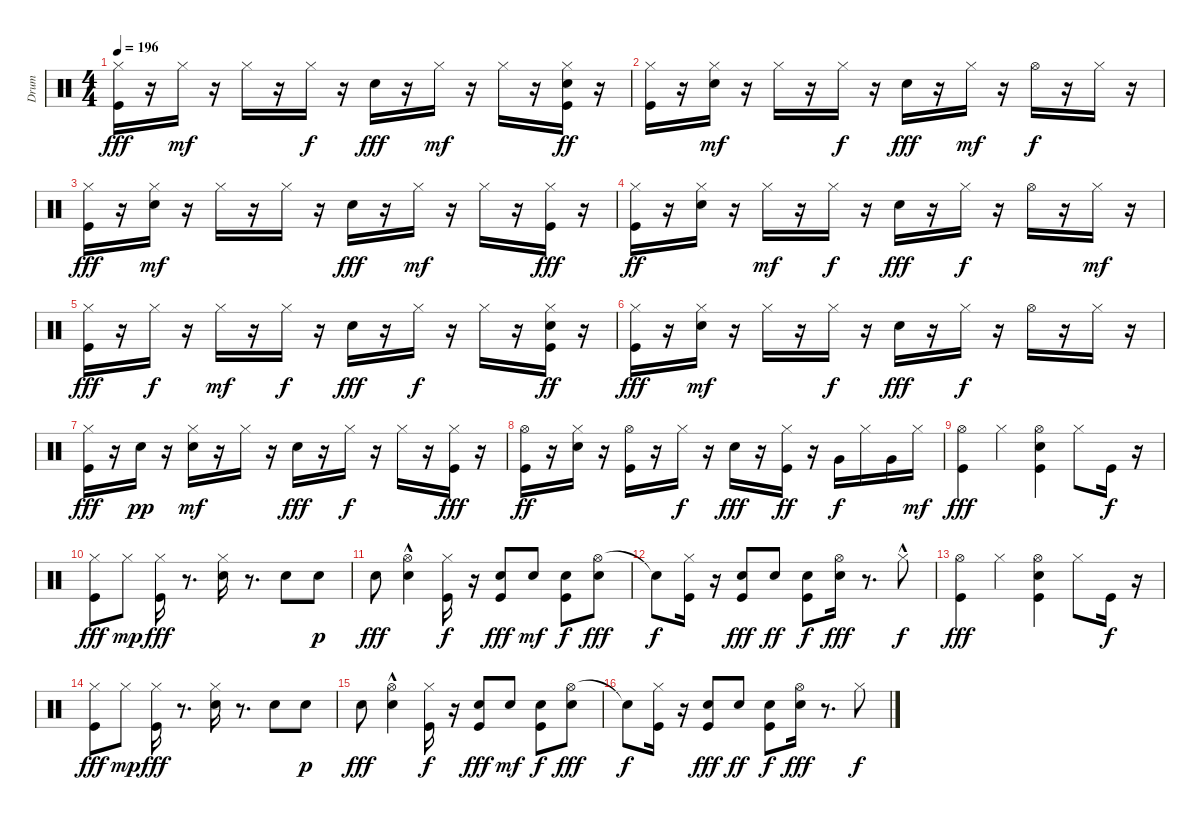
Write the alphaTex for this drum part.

\track ("Drum" "Drum") {instrument percussion}
\staff {score}
\articulation defaults
\ts (4 4)
\tempo 196
\clef neutral
\ks c
("Hi-Hat (closed)" "Kick (hit)").16{dy fff} r.16 "Hi-Hat (closed)".16{dy mf} r.16 "Hi-Hat (closed)".16 r.16 "Hi-Hat (closed)".16{dy f} r.16 "Snare (hit) 2".16{dy fff} r.16 "Hi-Hat (closed)".16{dy mf} r.16 "Hi-Hat (closed)".16 r.16 ("Snare (hit) 2" "Hi-Hat (closed)" "Kick (hit)").16{dy ff} r.16 |
("Hi-Hat (closed)" "Kick (hit)").16 r.16 ("Snare (hit) 2" "Hi-Hat (closed)").16{dy mf} r.16 "Hi-Hat (closed)".16 r.16 "Hi-Hat (closed)".16{dy f} r.16 "Snare (hit) 2".16{dy fff} r.16 "Hi-Hat (closed)".16{dy mf} r.16 "Hi-Hat (open)".16{dy f} r.16 "Hi-Hat (closed)".16 r.16 |
("Hi-Hat (closed)" "Kick (hit)").16{dy fff} r.16 ("Snare (hit) 2" "Hi-Hat (closed)").16{dy mf} r.16 "Hi-Hat (closed)".16 r.16 "Hi-Hat (closed)".16 r.16 "Snare (hit) 2".16{dy fff} r.16 "Hi-Hat (closed)".16{dy mf} r.16 "Hi-Hat (closed)".16 r.16 ("Hi-Hat (closed)" "Kick (hit)").16{dy fff} r.16 |
("Hi-Hat (closed)" "Kick (hit)").16{dy ff} r.16 ("Snare (hit) 2" "Hi-Hat (closed)").16 r.16 "Hi-Hat (closed)".16{dy mf} r.16 "Hi-Hat (closed)".16{dy f} r.16 "Snare (hit) 2".16{dy fff} r.16 "Hi-Hat (closed)".16{dy f} r.16 "Hi-Hat (open)".16 r.16 "Hi-Hat (closed)".16{dy mf} r.16 |
("Hi-Hat (closed)" "Kick (hit)").16{dy fff} r.16 "Hi-Hat (closed)".16{dy f} r.16 "Hi-Hat (closed)".16{dy mf} r.16 "Hi-Hat (closed)".16{dy f} r.16 "Snare (hit) 2".16{dy fff} r.16 "Hi-Hat (closed)".16{dy f} r.16 "Hi-Hat (closed)".16 r.16 ("Snare (hit) 2" "Hi-Hat (closed)" "Kick (hit)").16{dy ff} r.16 |
("Hi-Hat (closed)" "Kick (hit)").16{dy fff} r.16 ("Snare (hit) 2" "Hi-Hat (closed)").16{dy mf} r.16 "Hi-Hat (closed)".16 r.16 "Hi-Hat (closed)".16{dy f} r.16 "Snare (hit) 2".16{dy fff} r.16 "Hi-Hat (closed)".16{dy f} r.16 "Hi-Hat (open)".16 r.16 "Hi-Hat (closed)".16 r.16 |
("Hi-Hat (closed)" "Kick (hit)").16{dy fff} r.16 "Snare (hit) 2".16{dy pp} r.16 ("Snare (hit) 2" "Hi-Hat (closed)").16{dy mf} r.16 "Hi-Hat (closed)".16 r.16 "Snare (hit) 2".16{dy fff} r.16 "Hi-Hat (closed)".16{dy f} r.16 "Hi-Hat (closed)".16 r.16 ("Kick (hit)" "Hi-Hat (closed)").16{dy fff} r.16 |
("Hi-Hat (open)" "Kick (hit)").16{dy ff} r.16 ("Snare (hit) 2" "Hi-Hat (closed)").16 r.16 ("Hi-Hat (open)" "Kick (hit)").16 r.16 "Hi-Hat (closed)".16{dy f} r.16 "Snare (hit) 2".16{dy fff} r.16 ("Kick (hit)" "Hi-Hat (closed)").16{dy ff} r.16 "Very Low Tom (hit)".16{dy f} "Hi-Hat (closed)".16 "Very Low Tom (hit)".16 "Hi-Hat (closed)".16{dy mf} |
("Kick (hit)" "Hi-Hat (open)").4{dy fff} "Hi-Hat (closed)".4 ("Kick (hit)" "Hi-Hat (open)" "Snare (hit) 2").4 "Hi-Hat (closed)".8 "Kick (hit)".16{dy f} r.16 |
("Kick (hit)" "Hi-Hat (closed)").8{dy fff} "Hi-Hat (closed)".8{dy mp} ("Kick (hit)" "Hi-Hat (closed)").16{dy fff} r.8{d} ("Snare (hit) 2" "Hi-Hat (closed)").16 r.8{d} "Snare (hit) 2".8 "Snare (hit) 2".8{dy p} |
"Snare (hit) 2".8{dy fff} ("Hi-Hat (open)" "Snare (hit) 2"{hac}).4 ("Hi-Hat (closed)" "Kick (hit)").16{dy f} r.16 ("Kick (hit)" "Snare (hit) 2").8{dy fff} "Snare (hit) 2".8{dy mf} ("Kick (hit)" "Snare (hit) 2").8{dy f} ("Hi-Hat (open)" "Snare (hit) 2").8{dy fff} |
"Snare (hit)"{t}.8{dy f} ("Hi-Hat (closed)" "Kick (hit)").16 r.16 ("Kick (hit)" "Snare (hit) 2").8{dy fff} "Snare (hit) 2".8{dy ff} ("Kick (hit)" "Snare (hit) 2").8{dy f} ("Hi-Hat (open)" "Snare (hit) 2").16{dy fff} r.8{d} "Hi-Hat (closed)"{hac}.8{dy f} |
("Kick (hit)" "Hi-Hat (open)").4{dy fff} "Hi-Hat (closed)".4 ("Kick (hit)" "Hi-Hat (open)" "Snare (hit) 2").4 "Hi-Hat (closed)".8 "Kick (hit)".16{dy f} r.16 |
("Kick (hit)" "Hi-Hat (closed)").8{dy fff} "Hi-Hat (closed)".8{dy mp} ("Kick (hit)" "Hi-Hat (closed)").16{dy fff} r.8{d} ("Snare (hit) 2" "Hi-Hat (closed)").16 r.8{d} "Snare (hit) 2".8 "Snare (hit) 2".8{dy p} |
"Snare (hit) 2".8{dy fff} ("Hi-Hat (open)" "Snare (hit) 2"{hac}).4 ("Hi-Hat (closed)" "Kick (hit)").16{dy f} r.16 ("Kick (hit)" "Snare (hit) 2").8{dy fff} "Snare (hit) 2".8{dy mf} ("Kick (hit)" "Snare (hit) 2").8{dy f} ("Hi-Hat (open)" "Snare (hit) 2").8{dy fff} |
"Snare (hit)"{t}.8{dy f} ("Hi-Hat (closed)" "Kick (hit)").16 r.16 ("Kick (hit)" "Snare (hit) 2").8{dy fff} "Snare (hit) 2".8{dy ff} ("Kick (hit)" "Snare (hit) 2").8{dy f} ("Hi-Hat (open)" "Snare (hit) 2").16{dy fff} r.8{d} "Hi-Hat (closed)".8{dy f}
